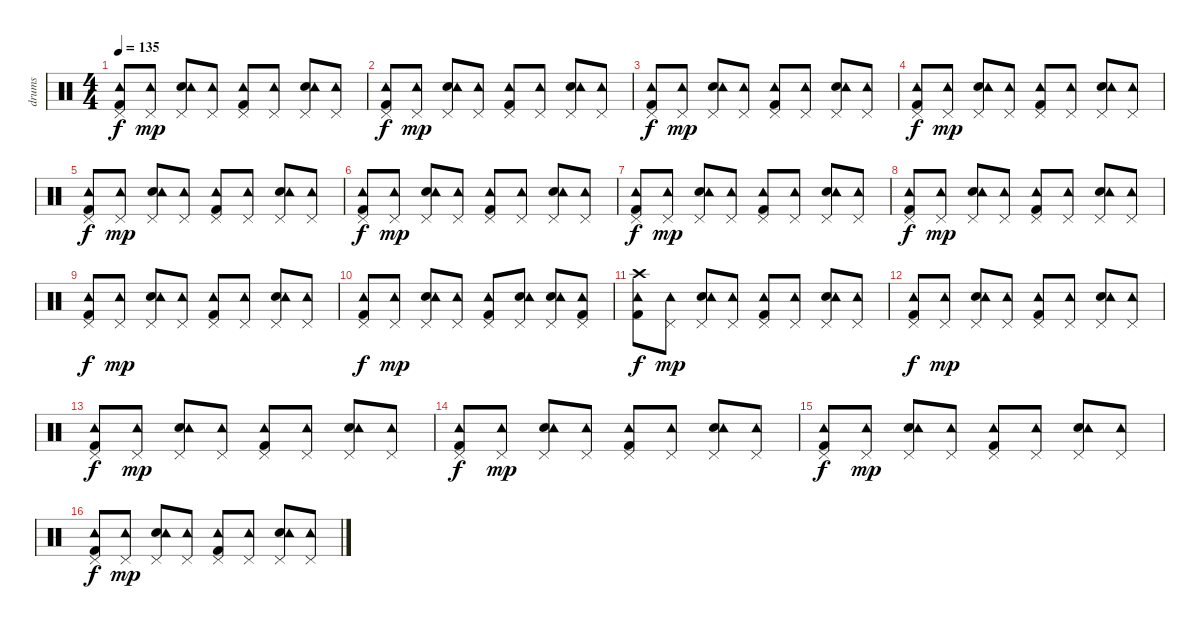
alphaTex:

\track ("drums" "drums") {instrument percussion}
\staff {score}
\articulation defaults
\ts (4 4)
\tempo 135
\clef neutral
\ks c
("Kick (hit) 2" "Pedal Hi-Hat (hit)" "Tambourine (hit)").8{dy f} ("Pedal Hi-Hat (hit)" "Tambourine (hit)").8{dy mp} ("Electric Snare (hit)" "Pedal Hi-Hat (hit)" "Tambourine (hit)").8 ("Pedal Hi-Hat (hit)" "Tambourine (hit)").8 ("Kick (hit) 2" "Pedal Hi-Hat (hit)" "Tambourine (hit)").8 ("Pedal Hi-Hat (hit)" "Tambourine (hit)").8 ("Electric Snare (hit)" "Pedal Hi-Hat (hit)" "Tambourine (hit)").8 ("Pedal Hi-Hat (hit)" "Tambourine (hit)").8 |
("Kick (hit) 2" "Pedal Hi-Hat (hit)" "Tambourine (hit)").8{dy f} ("Pedal Hi-Hat (hit)" "Tambourine (hit)").8{dy mp} ("Electric Snare (hit)" "Pedal Hi-Hat (hit)" "Tambourine (hit)").8 ("Pedal Hi-Hat (hit)" "Tambourine (hit)").8 ("Kick (hit) 2" "Pedal Hi-Hat (hit)" "Tambourine (hit)").8 ("Pedal Hi-Hat (hit)" "Tambourine (hit)").8 ("Electric Snare (hit)" "Pedal Hi-Hat (hit)" "Tambourine (hit)").8 ("Pedal Hi-Hat (hit)" "Tambourine (hit)").8 |
("Kick (hit) 2" "Pedal Hi-Hat (hit)" "Tambourine (hit)").8{dy f} ("Pedal Hi-Hat (hit)" "Tambourine (hit)").8{dy mp} ("Electric Snare (hit)" "Pedal Hi-Hat (hit)" "Tambourine (hit)").8 ("Pedal Hi-Hat (hit)" "Tambourine (hit)").8 ("Kick (hit) 2" "Pedal Hi-Hat (hit)" "Tambourine (hit)").8 ("Pedal Hi-Hat (hit)" "Tambourine (hit)").8 ("Electric Snare (hit)" "Pedal Hi-Hat (hit)" "Tambourine (hit)").8 ("Pedal Hi-Hat (hit)" "Tambourine (hit)").8 |
("Kick (hit) 2" "Pedal Hi-Hat (hit)" "Tambourine (hit)").8{dy f} ("Pedal Hi-Hat (hit)" "Tambourine (hit)").8{dy mp} ("Electric Snare (hit)" "Pedal Hi-Hat (hit)" "Tambourine (hit)").8 ("Pedal Hi-Hat (hit)" "Tambourine (hit)").8 ("Kick (hit) 2" "Pedal Hi-Hat (hit)" "Tambourine (hit)").8 ("Pedal Hi-Hat (hit)" "Tambourine (hit)").8 ("Electric Snare (hit)" "Pedal Hi-Hat (hit)" "Tambourine (hit)").8 ("Pedal Hi-Hat (hit)" "Tambourine (hit)").8 |
("Kick (hit) 2" "Pedal Hi-Hat (hit)" "Tambourine (hit)").8{dy f} ("Pedal Hi-Hat (hit)" "Tambourine (hit)").8{dy mp} ("Electric Snare (hit)" "Pedal Hi-Hat (hit)" "Tambourine (hit)").8 ("Pedal Hi-Hat (hit)" "Tambourine (hit)").8 ("Kick (hit) 2" "Pedal Hi-Hat (hit)" "Tambourine (hit)").8 ("Pedal Hi-Hat (hit)" "Tambourine (hit)").8 ("Electric Snare (hit)" "Pedal Hi-Hat (hit)" "Tambourine (hit)").8 ("Pedal Hi-Hat (hit)" "Tambourine (hit)").8 |
("Kick (hit) 2" "Pedal Hi-Hat (hit)" "Tambourine (hit)").8{dy f} ("Pedal Hi-Hat (hit)" "Tambourine (hit)").8{dy mp} ("Electric Snare (hit)" "Pedal Hi-Hat (hit)" "Tambourine (hit)").8 ("Pedal Hi-Hat (hit)" "Tambourine (hit)").8 ("Kick (hit) 2" "Pedal Hi-Hat (hit)" "Tambourine (hit)").8 ("Pedal Hi-Hat (hit)" "Tambourine (hit)").8 ("Electric Snare (hit)" "Pedal Hi-Hat (hit)" "Tambourine (hit)").8 ("Pedal Hi-Hat (hit)" "Tambourine (hit)").8 |
("Kick (hit) 2" "Pedal Hi-Hat (hit)" "Tambourine (hit)").8{dy f} ("Pedal Hi-Hat (hit)" "Tambourine (hit)").8{dy mp} ("Electric Snare (hit)" "Pedal Hi-Hat (hit)" "Tambourine (hit)").8 ("Pedal Hi-Hat (hit)" "Tambourine (hit)").8 ("Kick (hit) 2" "Pedal Hi-Hat (hit)" "Tambourine (hit)").8 ("Pedal Hi-Hat (hit)" "Tambourine (hit)").8 ("Electric Snare (hit)" "Pedal Hi-Hat (hit)" "Tambourine (hit)").8 ("Pedal Hi-Hat (hit)" "Tambourine (hit)").8 |
("Kick (hit) 2" "Pedal Hi-Hat (hit)" "Tambourine (hit)").8{dy f} ("Pedal Hi-Hat (hit)" "Tambourine (hit)").8{dy mp} ("Electric Snare (hit)" "Pedal Hi-Hat (hit)" "Tambourine (hit)").8 ("Pedal Hi-Hat (hit)" "Tambourine (hit)").8 ("Kick (hit) 2" "Pedal Hi-Hat (hit)" "Tambourine (hit)").8 ("Pedal Hi-Hat (hit)" "Tambourine (hit)").8 ("Electric Snare (hit)" "Pedal Hi-Hat (hit)" "Tambourine (hit)").8 ("Pedal Hi-Hat (hit)" "Tambourine (hit)").8 |
("Kick (hit) 2" "Pedal Hi-Hat (hit)" "Tambourine (hit)").8{dy f} ("Pedal Hi-Hat (hit)" "Tambourine (hit)").8{dy mp} ("Electric Snare (hit)" "Pedal Hi-Hat (hit)" "Tambourine (hit)").8 ("Pedal Hi-Hat (hit)" "Tambourine (hit)").8 ("Kick (hit) 2" "Pedal Hi-Hat (hit)" "Tambourine (hit)").8 ("Pedal Hi-Hat (hit)" "Tambourine (hit)").8 ("Electric Snare (hit)" "Pedal Hi-Hat (hit)" "Tambourine (hit)").8 ("Pedal Hi-Hat (hit)" "Tambourine (hit)").8 |
("Kick (hit) 2" "Pedal Hi-Hat (hit)" "Tambourine (hit)").8{dy f} ("Pedal Hi-Hat (hit)" "Tambourine (hit)").8{dy mp} ("Electric Snare (hit)" "Pedal Hi-Hat (hit)" "Tambourine (hit)").8 ("Pedal Hi-Hat (hit)" "Tambourine (hit)").8 ("Kick (hit) 2" "Pedal Hi-Hat (hit)" "Tambourine (hit)").8 ("Electric Snare (hit)" "Pedal Hi-Hat (hit)" "Tambourine (hit)").8 ("Electric Snare (hit)" "Pedal Hi-Hat (hit)" "Tambourine (hit)").8 ("Kick (hit) 2" "Pedal Hi-Hat (hit)" "Tambourine (hit)").8 |
("Kick (hit) 2" "Crash high (hit)" "Tambourine (hit)").8{dy f} ("Pedal Hi-Hat (hit)" "Tambourine (hit)").8{dy mp} ("Electric Snare (hit)" "Pedal Hi-Hat (hit)" "Tambourine (hit)").8 ("Pedal Hi-Hat (hit)" "Tambourine (hit)").8 ("Kick (hit) 2" "Pedal Hi-Hat (hit)" "Tambourine (hit)").8 ("Pedal Hi-Hat (hit)" "Tambourine (hit)").8 ("Electric Snare (hit)" "Pedal Hi-Hat (hit)" "Tambourine (hit)").8 ("Pedal Hi-Hat (hit)" "Tambourine (hit)").8 |
("Kick (hit) 2" "Pedal Hi-Hat (hit)" "Tambourine (hit)").8{dy f} ("Pedal Hi-Hat (hit)" "Tambourine (hit)").8{dy mp} ("Electric Snare (hit)" "Pedal Hi-Hat (hit)" "Tambourine (hit)").8 ("Pedal Hi-Hat (hit)" "Tambourine (hit)").8 ("Kick (hit) 2" "Pedal Hi-Hat (hit)" "Tambourine (hit)").8 ("Pedal Hi-Hat (hit)" "Tambourine (hit)").8 ("Electric Snare (hit)" "Pedal Hi-Hat (hit)" "Tambourine (hit)").8 ("Pedal Hi-Hat (hit)" "Tambourine (hit)").8 |
("Kick (hit) 2" "Pedal Hi-Hat (hit)" "Tambourine (hit)").8{dy f} ("Pedal Hi-Hat (hit)" "Tambourine (hit)").8{dy mp} ("Electric Snare (hit)" "Pedal Hi-Hat (hit)" "Tambourine (hit)").8 ("Pedal Hi-Hat (hit)" "Tambourine (hit)").8 ("Kick (hit) 2" "Pedal Hi-Hat (hit)" "Tambourine (hit)").8 ("Pedal Hi-Hat (hit)" "Tambourine (hit)").8 ("Electric Snare (hit)" "Pedal Hi-Hat (hit)" "Tambourine (hit)").8 ("Pedal Hi-Hat (hit)" "Tambourine (hit)").8 |
("Kick (hit) 2" "Pedal Hi-Hat (hit)" "Tambourine (hit)").8{dy f} ("Pedal Hi-Hat (hit)" "Tambourine (hit)").8{dy mp} ("Electric Snare (hit)" "Pedal Hi-Hat (hit)" "Tambourine (hit)").8 ("Pedal Hi-Hat (hit)" "Tambourine (hit)").8 ("Kick (hit) 2" "Pedal Hi-Hat (hit)" "Tambourine (hit)").8 ("Pedal Hi-Hat (hit)" "Tambourine (hit)").8 ("Electric Snare (hit)" "Pedal Hi-Hat (hit)" "Tambourine (hit)").8 ("Pedal Hi-Hat (hit)" "Tambourine (hit)").8 |
("Kick (hit) 2" "Pedal Hi-Hat (hit)" "Tambourine (hit)").8{dy f} ("Pedal Hi-Hat (hit)" "Tambourine (hit)").8{dy mp} ("Electric Snare (hit)" "Pedal Hi-Hat (hit)" "Tambourine (hit)").8 ("Pedal Hi-Hat (hit)" "Tambourine (hit)").8 ("Kick (hit) 2" "Pedal Hi-Hat (hit)" "Tambourine (hit)").8 ("Pedal Hi-Hat (hit)" "Tambourine (hit)").8 ("Electric Snare (hit)" "Pedal Hi-Hat (hit)" "Tambourine (hit)").8 ("Pedal Hi-Hat (hit)" "Tambourine (hit)").8 |
("Kick (hit) 2" "Pedal Hi-Hat (hit)" "Tambourine (hit)").8{dy f} ("Pedal Hi-Hat (hit)" "Tambourine (hit)").8{dy mp} ("Electric Snare (hit)" "Pedal Hi-Hat (hit)" "Tambourine (hit)").8 ("Pedal Hi-Hat (hit)" "Tambourine (hit)").8 ("Kick (hit) 2" "Pedal Hi-Hat (hit)" "Tambourine (hit)").8 ("Pedal Hi-Hat (hit)" "Tambourine (hit)").8 ("Electric Snare (hit)" "Pedal Hi-Hat (hit)" "Tambourine (hit)").8 ("Pedal Hi-Hat (hit)" "Tambourine (hit)").8
